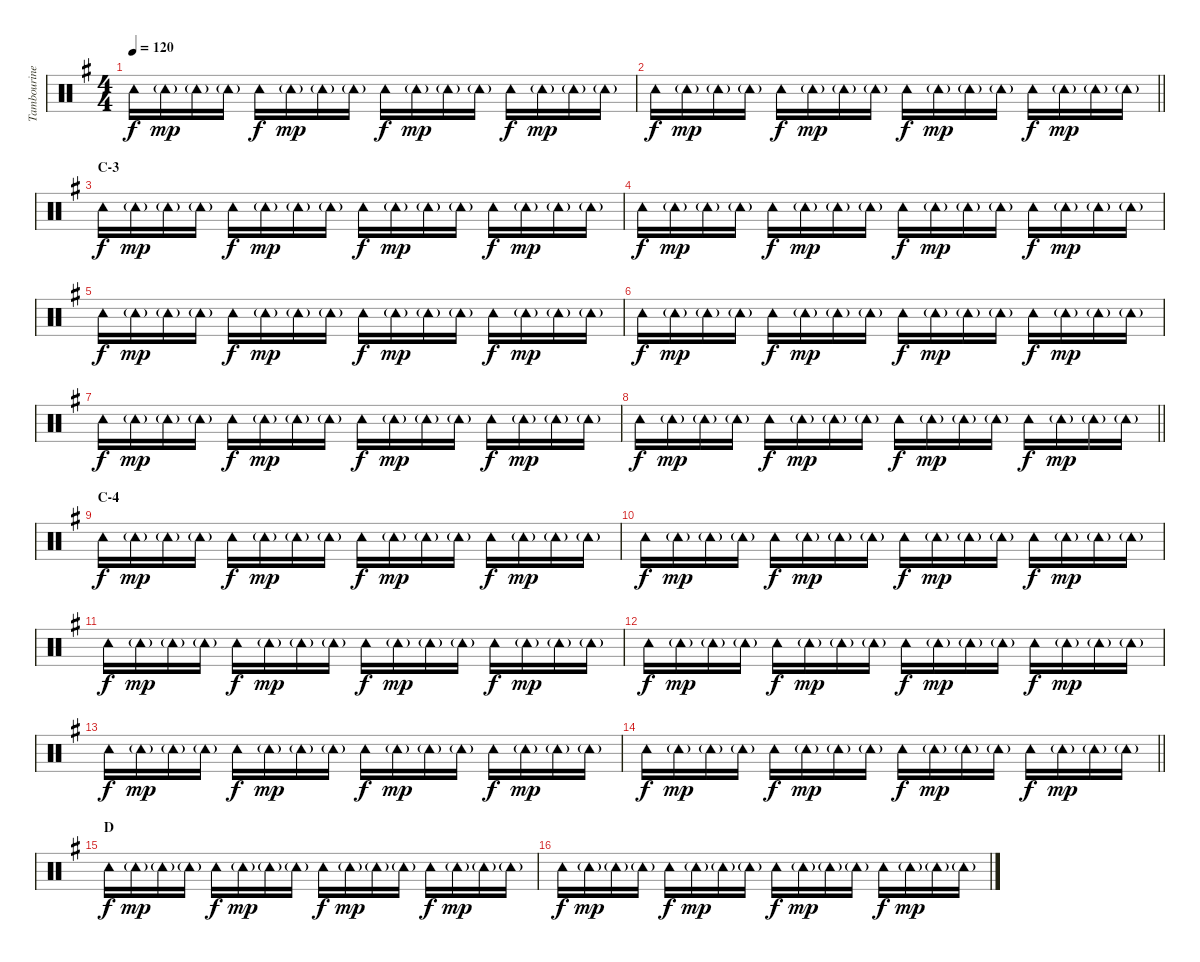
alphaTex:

\track ("Tambourine" "Tambourine") {instrument percussion}
\staff {score}
\articulation defaults
\ts (4 4)
\tempo 120
\clef neutral
\ks g "Tambourine (hit)".16{dy f} "Tambourine (hit)"{g}.16{dy mp} "Tambourine (hit)"{g}.16 "Tambourine (hit)"{g}.16 "Tambourine (hit)".16{dy f} "Tambourine (hit)"{g}.16{dy mp} "Tambourine (hit)"{g}.16 "Tambourine (hit)"{g}.16 "Tambourine (hit)".16{dy f} "Tambourine (hit)"{g}.16{dy mp} "Tambourine (hit)"{g}.16 "Tambourine (hit)"{g}.16 "Tambourine (hit)".16{dy f} "Tambourine (hit)"{g}.16{dy mp} "Tambourine (hit)"{g}.16 "Tambourine (hit)"{g}.16
|
\barLineRight lightlight "Tambourine (hit)".16{dy f} "Tambourine (hit)"{g}.16{dy mp} "Tambourine (hit)"{g}.16 "Tambourine (hit)"{g}.16 "Tambourine (hit)".16{dy f} "Tambourine (hit)"{g}.16{dy mp} "Tambourine (hit)"{g}.16 "Tambourine (hit)"{g}.16 "Tambourine (hit)".16{dy f} "Tambourine (hit)"{g}.16{dy mp} "Tambourine (hit)"{g}.16 "Tambourine (hit)"{g}.16 "Tambourine (hit)".16{dy f} "Tambourine (hit)"{g}.16{dy mp} "Tambourine (hit)"{g}.16 "Tambourine (hit)"{g}.16
|
\section ("" "C-3")
"Tambourine (hit)".16{dy f} "Tambourine (hit)"{g}.16{dy mp} "Tambourine (hit)"{g}.16 "Tambourine (hit)"{g}.16 "Tambourine (hit)".16{dy f} "Tambourine (hit)"{g}.16{dy mp} "Tambourine (hit)"{g}.16 "Tambourine (hit)"{g}.16 "Tambourine (hit)".16{dy f} "Tambourine (hit)"{g}.16{dy mp} "Tambourine (hit)"{g}.16 "Tambourine (hit)"{g}.16 "Tambourine (hit)".16{dy f} "Tambourine (hit)"{g}.16{dy mp} "Tambourine (hit)"{g}.16 "Tambourine (hit)"{g}.16 |
"Tambourine (hit)".16{dy f} "Tambourine (hit)"{g}.16{dy mp} "Tambourine (hit)"{g}.16 "Tambourine (hit)"{g}.16 "Tambourine (hit)".16{dy f} "Tambourine (hit)"{g}.16{dy mp} "Tambourine (hit)"{g}.16 "Tambourine (hit)"{g}.16 "Tambourine (hit)".16{dy f} "Tambourine (hit)"{g}.16{dy mp} "Tambourine (hit)"{g}.16 "Tambourine (hit)"{g}.16 "Tambourine (hit)".16{dy f} "Tambourine (hit)"{g}.16{dy mp} "Tambourine (hit)"{g}.16 "Tambourine (hit)"{g}.16 |
"Tambourine (hit)".16{dy f} "Tambourine (hit)"{g}.16{dy mp} "Tambourine (hit)"{g}.16 "Tambourine (hit)"{g}.16 "Tambourine (hit)".16{dy f} "Tambourine (hit)"{g}.16{dy mp} "Tambourine (hit)"{g}.16 "Tambourine (hit)"{g}.16 "Tambourine (hit)".16{dy f} "Tambourine (hit)"{g}.16{dy mp} "Tambourine (hit)"{g}.16 "Tambourine (hit)"{g}.16 "Tambourine (hit)".16{dy f} "Tambourine (hit)"{g}.16{dy mp} "Tambourine (hit)"{g}.16 "Tambourine (hit)"{g}.16 |
"Tambourine (hit)".16{dy f} "Tambourine (hit)"{g}.16{dy mp} "Tambourine (hit)"{g}.16 "Tambourine (hit)"{g}.16 "Tambourine (hit)".16{dy f} "Tambourine (hit)"{g}.16{dy mp} "Tambourine (hit)"{g}.16 "Tambourine (hit)"{g}.16 "Tambourine (hit)".16{dy f} "Tambourine (hit)"{g}.16{dy mp} "Tambourine (hit)"{g}.16 "Tambourine (hit)"{g}.16 "Tambourine (hit)".16{dy f} "Tambourine (hit)"{g}.16{dy mp} "Tambourine (hit)"{g}.16 "Tambourine (hit)"{g}.16 |
"Tambourine (hit)".16{dy f} "Tambourine (hit)"{g}.16{dy mp} "Tambourine (hit)"{g}.16 "Tambourine (hit)"{g}.16 "Tambourine (hit)".16{dy f} "Tambourine (hit)"{g}.16{dy mp} "Tambourine (hit)"{g}.16 "Tambourine (hit)"{g}.16 "Tambourine (hit)".16{dy f} "Tambourine (hit)"{g}.16{dy mp} "Tambourine (hit)"{g}.16 "Tambourine (hit)"{g}.16 "Tambourine (hit)".16{dy f} "Tambourine (hit)"{g}.16{dy mp} "Tambourine (hit)"{g}.16 "Tambourine (hit)"{g}.16 |
\barLineRight lightlight "Tambourine (hit)".16{dy f} "Tambourine (hit)"{g}.16{dy mp} "Tambourine (hit)"{g}.16 "Tambourine (hit)"{g}.16 "Tambourine (hit)".16{dy f} "Tambourine (hit)"{g}.16{dy mp} "Tambourine (hit)"{g}.16 "Tambourine (hit)"{g}.16 "Tambourine (hit)".16{dy f} "Tambourine (hit)"{g}.16{dy mp} "Tambourine (hit)"{g}.16 "Tambourine (hit)"{g}.16 "Tambourine (hit)".16{dy f} "Tambourine (hit)"{g}.16{dy mp} "Tambourine (hit)"{g}.16 "Tambourine (hit)"{g}.16
|
\section ("" "C-4")
"Tambourine (hit)".16{dy f} "Tambourine (hit)"{g}.16{dy mp} "Tambourine (hit)"{g}.16 "Tambourine (hit)"{g}.16 "Tambourine (hit)".16{dy f} "Tambourine (hit)"{g}.16{dy mp} "Tambourine (hit)"{g}.16 "Tambourine (hit)"{g}.16 "Tambourine (hit)".16{dy f} "Tambourine (hit)"{g}.16{dy mp} "Tambourine (hit)"{g}.16 "Tambourine (hit)"{g}.16 "Tambourine (hit)".16{dy f} "Tambourine (hit)"{g}.16{dy mp} "Tambourine (hit)"{g}.16 "Tambourine (hit)"{g}.16 |
"Tambourine (hit)".16{dy f} "Tambourine (hit)"{g}.16{dy mp} "Tambourine (hit)"{g}.16 "Tambourine (hit)"{g}.16 "Tambourine (hit)".16{dy f} "Tambourine (hit)"{g}.16{dy mp} "Tambourine (hit)"{g}.16 "Tambourine (hit)"{g}.16 "Tambourine (hit)".16{dy f} "Tambourine (hit)"{g}.16{dy mp} "Tambourine (hit)"{g}.16 "Tambourine (hit)"{g}.16 "Tambourine (hit)".16{dy f} "Tambourine (hit)"{g}.16{dy mp} "Tambourine (hit)"{g}.16 "Tambourine (hit)"{g}.16 |
"Tambourine (hit)".16{dy f} "Tambourine (hit)"{g}.16{dy mp} "Tambourine (hit)"{g}.16 "Tambourine (hit)"{g}.16 "Tambourine (hit)".16{dy f} "Tambourine (hit)"{g}.16{dy mp} "Tambourine (hit)"{g}.16 "Tambourine (hit)"{g}.16 "Tambourine (hit)".16{dy f} "Tambourine (hit)"{g}.16{dy mp} "Tambourine (hit)"{g}.16 "Tambourine (hit)"{g}.16 "Tambourine (hit)".16{dy f} "Tambourine (hit)"{g}.16{dy mp} "Tambourine (hit)"{g}.16 "Tambourine (hit)"{g}.16 |
"Tambourine (hit)".16{dy f} "Tambourine (hit)"{g}.16{dy mp} "Tambourine (hit)"{g}.16 "Tambourine (hit)"{g}.16 "Tambourine (hit)".16{dy f} "Tambourine (hit)"{g}.16{dy mp} "Tambourine (hit)"{g}.16 "Tambourine (hit)"{g}.16 "Tambourine (hit)".16{dy f} "Tambourine (hit)"{g}.16{dy mp} "Tambourine (hit)"{g}.16 "Tambourine (hit)"{g}.16 "Tambourine (hit)".16{dy f} "Tambourine (hit)"{g}.16{dy mp} "Tambourine (hit)"{g}.16 "Tambourine (hit)"{g}.16 |
"Tambourine (hit)".16{dy f} "Tambourine (hit)"{g}.16{dy mp} "Tambourine (hit)"{g}.16 "Tambourine (hit)"{g}.16 "Tambourine (hit)".16{dy f} "Tambourine (hit)"{g}.16{dy mp} "Tambourine (hit)"{g}.16 "Tambourine (hit)"{g}.16 "Tambourine (hit)".16{dy f} "Tambourine (hit)"{g}.16{dy mp} "Tambourine (hit)"{g}.16 "Tambourine (hit)"{g}.16 "Tambourine (hit)".16{dy f} "Tambourine (hit)"{g}.16{dy mp} "Tambourine (hit)"{g}.16 "Tambourine (hit)"{g}.16 |
\barLineRight lightlight "Tambourine (hit)".16{dy f} "Tambourine (hit)"{g}.16{dy mp} "Tambourine (hit)"{g}.16 "Tambourine (hit)"{g}.16 "Tambourine (hit)".16{dy f} "Tambourine (hit)"{g}.16{dy mp} "Tambourine (hit)"{g}.16 "Tambourine (hit)"{g}.16 "Tambourine (hit)".16{dy f} "Tambourine (hit)"{g}.16{dy mp} "Tambourine (hit)"{g}.16 "Tambourine (hit)"{g}.16 "Tambourine (hit)".16{dy f} "Tambourine (hit)"{g}.16{dy mp} "Tambourine (hit)"{g}.16 "Tambourine (hit)"{g}.16
|
\section ("" "D")
"Tambourine (hit)".16{dy f} "Tambourine (hit)"{g}.16{dy mp} "Tambourine (hit)"{g}.16 "Tambourine (hit)"{g}.16 "Tambourine (hit)".16{dy f} "Tambourine (hit)"{g}.16{dy mp} "Tambourine (hit)"{g}.16 "Tambourine (hit)"{g}.16 "Tambourine (hit)".16{dy f} "Tambourine (hit)"{g}.16{dy mp} "Tambourine (hit)"{g}.16 "Tambourine (hit)"{g}.16 "Tambourine (hit)".16{dy f} "Tambourine (hit)"{g}.16{dy mp} "Tambourine (hit)"{g}.16 "Tambourine (hit)"{g}.16 |
"Tambourine (hit)".16{dy f} "Tambourine (hit)"{g}.16{dy mp} "Tambourine (hit)"{g}.16 "Tambourine (hit)"{g}.16 "Tambourine (hit)".16{dy f} "Tambourine (hit)"{g}.16{dy mp} "Tambourine (hit)"{g}.16 "Tambourine (hit)"{g}.16 "Tambourine (hit)".16{dy f} "Tambourine (hit)"{g}.16{dy mp} "Tambourine (hit)"{g}.16 "Tambourine (hit)"{g}.16 "Tambourine (hit)".16{dy f} "Tambourine (hit)"{g}.16{dy mp} "Tambourine (hit)"{g}.16 "Tambourine (hit)"{g}.16
